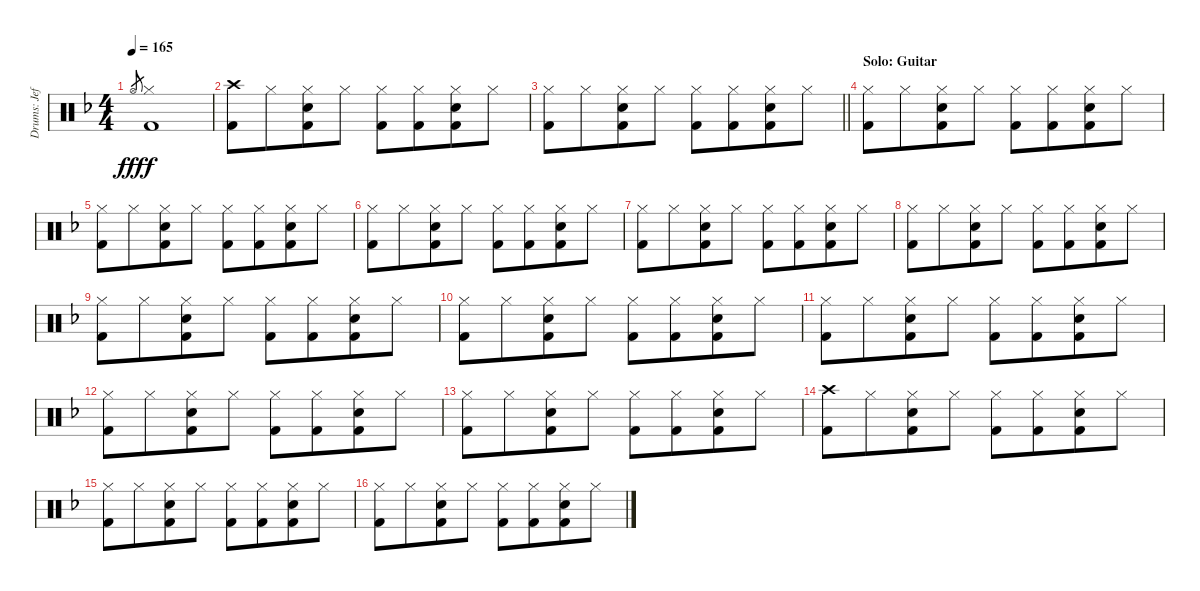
\track ("Drums: Jeff" "Drums: Jef") {instrument percussion}
\staff {score}
\articulation defaults
\ts (4 4)
\tempo 165
\clef neutral
\ks f "Hi-Hat (open)".8{gr dy fff}
("Hi-Hat (closed)" "Kick (hit) 2").1{dy f} |
("Crash high (hit)" "Kick (hit) 2").8 "Hi-Hat (closed)".8{beam merge} ("Hi-Hat (closed)" "Snare (hit) 2" "Kick (hit) 2").8 "Hi-Hat (closed)".8{beam split} ("Hi-Hat (closed)" "Kick (hit) 2").8 ("Hi-Hat (closed)" "Kick (hit) 2").8{beam merge} ("Hi-Hat (closed)" "Snare (hit) 2" "Kick (hit) 2").8 "Hi-Hat (closed)".8 |
\barLineRight lightlight
("Hi-Hat (closed)" "Kick (hit) 2").8 "Hi-Hat (closed)".8{beam merge} ("Hi-Hat (closed)" "Snare (hit) 2" "Kick (hit) 2").8 "Hi-Hat (closed)".8{beam split} ("Hi-Hat (closed)" "Kick (hit) 2").8 ("Hi-Hat (closed)" "Kick (hit) 2").8{beam merge} ("Hi-Hat (closed)" "Snare (hit) 2" "Kick (hit) 2").8 "Hi-Hat (closed)".8 |
\section ("" "Solo: Guitar")
("Hi-Hat (closed)" "Kick (hit) 2").8 "Hi-Hat (closed)".8{beam merge} ("Hi-Hat (closed)" "Snare (hit) 2" "Kick (hit) 2").8 "Hi-Hat (closed)".8{beam split} ("Hi-Hat (closed)" "Kick (hit) 2").8 ("Hi-Hat (closed)" "Kick (hit) 2").8{beam merge} ("Hi-Hat (closed)" "Snare (hit) 2" "Kick (hit) 2").8 "Hi-Hat (closed)".8 |
("Hi-Hat (closed)" "Kick (hit) 2").8 "Hi-Hat (closed)".8{beam merge} ("Hi-Hat (closed)" "Snare (hit) 2" "Kick (hit) 2").8 "Hi-Hat (closed)".8{beam split} ("Hi-Hat (closed)" "Kick (hit) 2").8 ("Hi-Hat (closed)" "Kick (hit) 2").8{beam merge} ("Hi-Hat (closed)" "Snare (hit) 2" "Kick (hit) 2").8 "Hi-Hat (closed)".8 |
("Hi-Hat (closed)" "Kick (hit) 2").8 "Hi-Hat (closed)".8{beam merge} ("Hi-Hat (closed)" "Snare (hit) 2" "Kick (hit) 2").8 "Hi-Hat (closed)".8{beam split} ("Hi-Hat (closed)" "Kick (hit) 2").8 ("Hi-Hat (closed)" "Kick (hit) 2").8{beam merge} ("Hi-Hat (closed)" "Snare (hit) 2" "Kick (hit) 2").8 "Hi-Hat (closed)".8 |
("Hi-Hat (closed)" "Kick (hit) 2").8 "Hi-Hat (closed)".8{beam merge} ("Hi-Hat (closed)" "Snare (hit) 2" "Kick (hit) 2").8 "Hi-Hat (closed)".8{beam split} ("Hi-Hat (closed)" "Kick (hit) 2").8 ("Hi-Hat (closed)" "Kick (hit) 2").8{beam merge} ("Hi-Hat (closed)" "Snare (hit) 2" "Kick (hit) 2").8 "Hi-Hat (closed)".8 |
("Hi-Hat (closed)" "Kick (hit) 2").8 "Hi-Hat (closed)".8{beam merge} ("Hi-Hat (closed)" "Snare (hit) 2" "Kick (hit) 2").8 "Hi-Hat (closed)".8{beam split} ("Hi-Hat (closed)" "Kick (hit) 2").8 ("Hi-Hat (closed)" "Kick (hit) 2").8{beam merge} ("Hi-Hat (closed)" "Snare (hit) 2" "Kick (hit) 2").8 "Hi-Hat (closed)".8 |
("Hi-Hat (closed)" "Kick (hit) 2").8 "Hi-Hat (closed)".8{beam merge} ("Hi-Hat (closed)" "Snare (hit) 2" "Kick (hit) 2").8 "Hi-Hat (closed)".8{beam split} ("Hi-Hat (closed)" "Kick (hit) 2").8 ("Hi-Hat (closed)" "Kick (hit) 2").8{beam merge} ("Hi-Hat (closed)" "Snare (hit) 2" "Kick (hit) 2").8 "Hi-Hat (closed)".8 |
("Hi-Hat (closed)" "Kick (hit) 2").8 "Hi-Hat (closed)".8{beam merge} ("Hi-Hat (closed)" "Snare (hit) 2" "Kick (hit) 2").8 "Hi-Hat (closed)".8{beam split} ("Hi-Hat (closed)" "Kick (hit) 2").8 ("Hi-Hat (closed)" "Kick (hit) 2").8{beam merge} ("Hi-Hat (closed)" "Snare (hit) 2" "Kick (hit) 2").8 "Hi-Hat (closed)".8 |
("Hi-Hat (closed)" "Kick (hit) 2").8 "Hi-Hat (closed)".8{beam merge} ("Hi-Hat (closed)" "Snare (hit) 2" "Kick (hit) 2").8 "Hi-Hat (closed)".8{beam split} ("Hi-Hat (closed)" "Kick (hit) 2").8 ("Hi-Hat (closed)" "Kick (hit) 2").8{beam merge} ("Hi-Hat (closed)" "Snare (hit) 2" "Kick (hit) 2").8 "Hi-Hat (closed)".8 |
("Hi-Hat (closed)" "Kick (hit) 2").8 "Hi-Hat (closed)".8{beam merge} ("Hi-Hat (closed)" "Snare (hit) 2" "Kick (hit) 2").8 "Hi-Hat (closed)".8{beam split} ("Hi-Hat (closed)" "Kick (hit) 2").8 ("Hi-Hat (closed)" "Kick (hit) 2").8{beam merge} ("Hi-Hat (closed)" "Snare (hit) 2" "Kick (hit) 2").8 "Hi-Hat (closed)".8 |
("Hi-Hat (closed)" "Kick (hit) 2").8 "Hi-Hat (closed)".8{beam merge} ("Hi-Hat (closed)" "Snare (hit) 2" "Kick (hit) 2").8 "Hi-Hat (closed)".8{beam split} ("Hi-Hat (closed)" "Kick (hit) 2").8 ("Hi-Hat (closed)" "Kick (hit) 2").8{beam merge} ("Hi-Hat (closed)" "Snare (hit) 2" "Kick (hit) 2").8 "Hi-Hat (closed)".8 |
("Crash high (hit)" "Kick (hit) 2").8 "Hi-Hat (closed)".8{beam merge} ("Hi-Hat (closed)" "Snare (hit) 2" "Kick (hit) 2").8 "Hi-Hat (closed)".8{beam split} ("Hi-Hat (closed)" "Kick (hit) 2").8 ("Hi-Hat (closed)" "Kick (hit) 2").8{beam merge} ("Hi-Hat (closed)" "Snare (hit) 2" "Kick (hit) 2").8 "Hi-Hat (closed)".8 |
("Hi-Hat (closed)" "Kick (hit) 2").8 "Hi-Hat (closed)".8{beam merge} ("Hi-Hat (closed)" "Snare (hit) 2" "Kick (hit) 2").8 "Hi-Hat (closed)".8{beam split} ("Hi-Hat (closed)" "Kick (hit) 2").8 ("Hi-Hat (closed)" "Kick (hit) 2").8{beam merge} ("Hi-Hat (closed)" "Snare (hit) 2" "Kick (hit) 2").8 "Hi-Hat (closed)".8 |
("Hi-Hat (closed)" "Kick (hit) 2").8 "Hi-Hat (closed)".8{beam merge} ("Hi-Hat (closed)" "Snare (hit) 2" "Kick (hit) 2").8 "Hi-Hat (closed)".8{beam split} ("Hi-Hat (closed)" "Kick (hit) 2").8 ("Hi-Hat (closed)" "Kick (hit) 2").8{beam merge} ("Hi-Hat (closed)" "Snare (hit) 2" "Kick (hit) 2").8 "Hi-Hat (closed)".8
